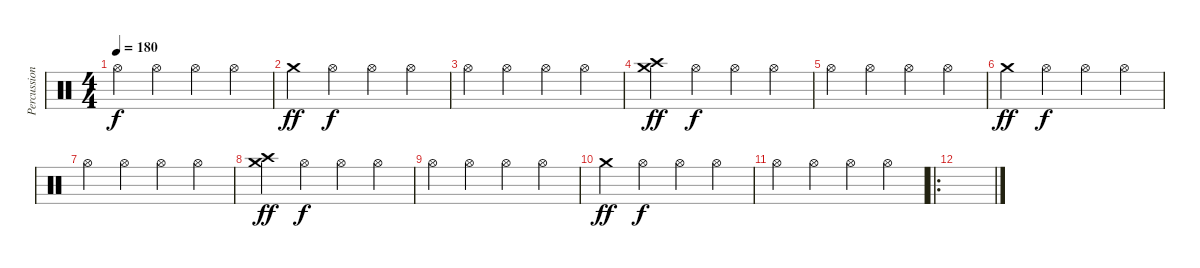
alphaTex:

\track ("Percussion (Francisco Izquierdo)" "Percussion") {instrument percussion}
\staff {score}
\articulation defaults
\ts (4 4)
\tempo 180
\clef neutral
\ks c "Hi-Hat (open)".4{dy f} "Hi-Hat (open)".4 "Hi-Hat (open)".4 "Hi-Hat (open)".4
|
"Crash medium (hit)".4{dy ff} "Hi-Hat (open)".4{dy f} "Hi-Hat (open)".4 "Hi-Hat (open)".4 |
"Hi-Hat (open)".4 "Hi-Hat (open)".4 "Hi-Hat (open)".4 "Hi-Hat (open)".4 |
("Crash high (hit)" "Crash medium (hit)").4{dy ff} "Hi-Hat (open)".4{dy f} "Hi-Hat (open)".4 "Hi-Hat (open)".4 |
"Hi-Hat (open)".4 "Hi-Hat (open)".4 "Hi-Hat (open)".4 "Hi-Hat (open)".4 |
"Crash medium (hit)".4{dy ff} "Hi-Hat (open)".4{dy f} "Hi-Hat (open)".4 "Hi-Hat (open)".4 |
"Hi-Hat (open)".4 "Hi-Hat (open)".4 "Hi-Hat (open)".4 "Hi-Hat (open)".4 |
("Crash high (hit)" "Crash medium (hit)").4{dy ff} "Hi-Hat (open)".4{dy f} "Hi-Hat (open)".4 "Hi-Hat (open)".4 |
"Hi-Hat (open)".4 "Hi-Hat (open)".4 "Hi-Hat (open)".4 "Hi-Hat (open)".4 |
"Crash medium (hit)".4{dy ff} "Hi-Hat (open)".4{dy f} "Hi-Hat (open)".4 "Hi-Hat (open)".4 |
"Hi-Hat (open)".4 "Hi-Hat (open)".4 "Hi-Hat (open)".4 "Hi-Hat (open)".4 |
\ro
